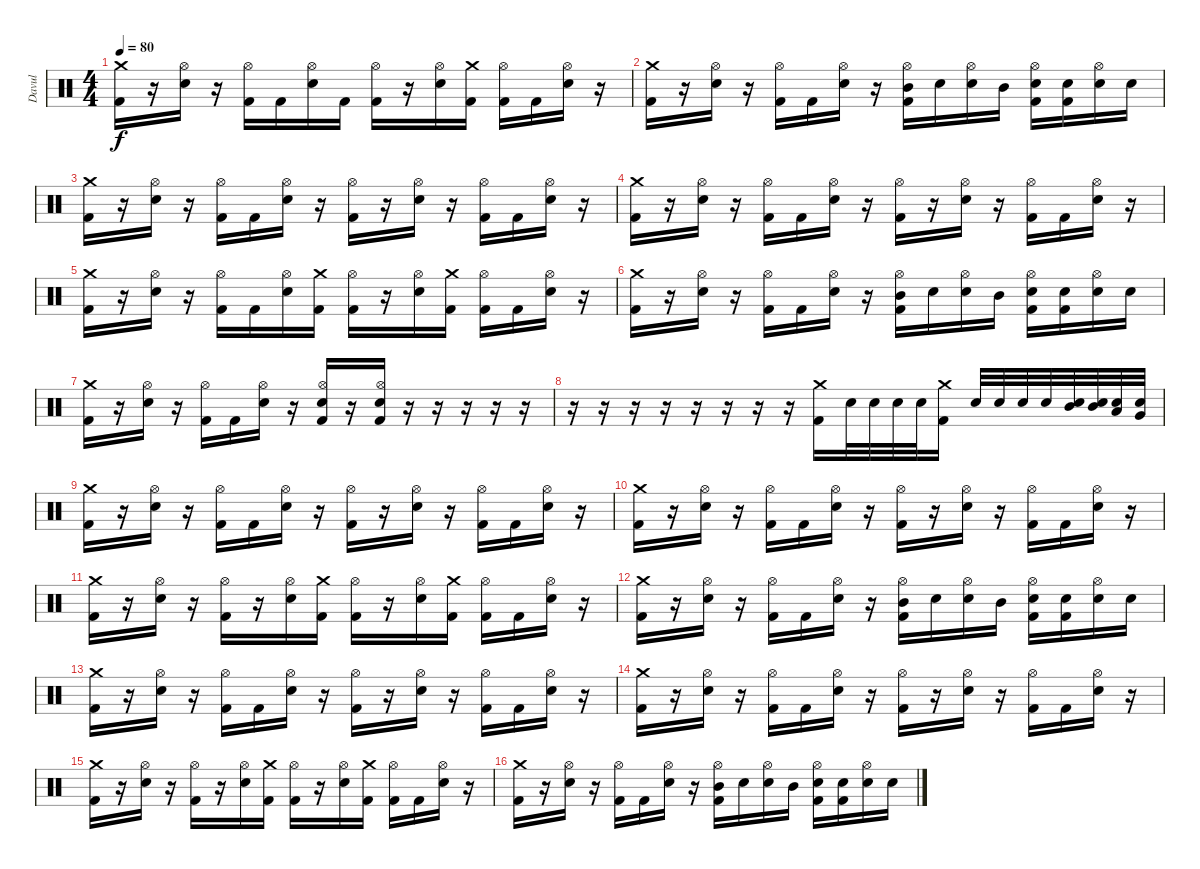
\track ("Davul" "Davul") {instrument percussion}
\staff {score}
\articulation defaults
\ts (4 4)
\tempo 80
\clef neutral
\ks c
("Crash medium (hit)" "Kick (hit) 2").16{dy f} r.16 ("Hi-Hat (open)" "Snare (hit) 2").16 r.16 ("Hi-Hat (open)" "Kick (hit) 2").16 "Kick (hit) 2".16 ("Hi-Hat (open)" "Snare (hit) 2").16 "Kick (hit) 2".16 ("Hi-Hat (open)" "Kick (hit) 2").16 r.16 ("Hi-Hat (open)" "Snare (hit) 2").16 ("Crash medium (hit)" "Kick (hit) 2").16 ("Hi-Hat (open)" "Kick (hit) 2").16 "Kick (hit) 2".16 ("Hi-Hat (open)" "Snare (hit) 2").16 r.16 |
("Crash medium (hit)" "Kick (hit) 2").16 r.16 ("Hi-Hat (open)" "Snare (hit) 2").16 r.16 ("Hi-Hat (open)" "Kick (hit) 2").16 "Kick (hit) 2".16 ("Hi-Hat (open)" "Snare (hit) 2").16 r.16 ("Hi-Hat (open)" "Mid Tom (hit)" "Kick (hit) 2").16 "Snare (hit) 2".16 ("Hi-Hat (open)" "Snare (hit) 2").16 "Mid Tom (hit)".16 ("Hi-Hat (open)" "Snare (hit) 2" "Kick (hit) 2").16 ("Snare (hit) 2" "Kick (hit) 2").16 ("Hi-Hat (open)" "Snare (hit) 2").16 "Snare (hit) 2".16 |
("Crash medium (hit)" "Kick (hit) 2").16 r.16 ("Hi-Hat (open)" "Snare (hit) 2").16 r.16 ("Hi-Hat (open)" "Kick (hit) 2").16 "Kick (hit) 2".16 ("Hi-Hat (open)" "Snare (hit) 2").16 r.16 ("Hi-Hat (open)" "Kick (hit) 2").16 r.16 ("Hi-Hat (open)" "Snare (hit) 2").16 r.16 ("Hi-Hat (open)" "Kick (hit) 2").16 "Kick (hit) 2".16 ("Hi-Hat (open)" "Snare (hit) 2").16 r.16 |
("Crash medium (hit)" "Kick (hit) 2").16 r.16 ("Hi-Hat (open)" "Snare (hit) 2").16 r.16 ("Hi-Hat (open)" "Kick (hit) 2").16 "Kick (hit) 2".16 ("Hi-Hat (open)" "Snare (hit) 2").16 r.16 ("Hi-Hat (open)" "Kick (hit) 2").16 r.16 ("Hi-Hat (open)" "Snare (hit) 2").16 r.16 ("Hi-Hat (open)" "Kick (hit) 2").16 "Kick (hit) 2".16 ("Hi-Hat (open)" "Snare (hit) 2").16 r.16 |
("Crash medium (hit)" "Kick (hit) 2").16 r.16 ("Hi-Hat (open)" "Snare (hit) 2").16 r.16 ("Hi-Hat (open)" "Kick (hit) 2").16 "Kick (hit) 2".16 ("Hi-Hat (open)" "Snare (hit) 2").16 ("Crash medium (hit)" "Kick (hit) 2").16 ("Hi-Hat (open)" "Kick (hit) 2").16 r.16 ("Hi-Hat (open)" "Snare (hit) 2").16 ("Crash medium (hit)" "Kick (hit) 2").16 ("Hi-Hat (open)" "Kick (hit) 2").16 "Kick (hit) 2".16 ("Hi-Hat (open)" "Snare (hit) 2").16 r.16 |
("Crash medium (hit)" "Kick (hit) 2").16 r.16 ("Hi-Hat (open)" "Snare (hit) 2").16 r.16 ("Hi-Hat (open)" "Kick (hit) 2").16 "Kick (hit) 2".16 ("Hi-Hat (open)" "Snare (hit) 2").16 r.16 ("Hi-Hat (open)" "Mid Tom (hit)" "Kick (hit) 2").16 "Snare (hit) 2".16 ("Hi-Hat (open)" "Snare (hit) 2").16 "Mid Tom (hit)".16 ("Hi-Hat (open)" "Snare (hit) 2" "Kick (hit) 2").16 ("Snare (hit) 2" "Kick (hit) 2").16 ("Hi-Hat (open)" "Snare (hit) 2").16 "Snare (hit) 2".16 |
("Crash medium (hit)" "Kick (hit) 2").16 r.16 ("Hi-Hat (open)" "Snare (hit) 2").16 r.16 ("Hi-Hat (open)" "Kick (hit) 2").16 "Kick (hit) 2".16 ("Hi-Hat (open)" "Snare (hit) 2").16 r.16 ("Hi-Hat (open)" "Snare (hit) 2" "Kick (hit) 2").16 r.16 ("Hi-Hat (open)" "Snare (hit) 2" "Kick (hit) 2").16 r.16 r.16 r.16 r.16 r.16 |
r.16 r.16 r.16 r.16 r.16 r.16 r.16 r.16 ("Kick (hit) 2" "Crash medium (hit)").16 "Snare (hit) 2".32 "Snare (hit) 2".32 "Snare (hit) 2".32 "Snare (hit) 2".32 ("Kick (hit) 2" "Crash medium (hit)").16 "Snare (hit) 2".32 "Snare (hit) 2".32 "Snare (hit) 2".32 "Snare (hit) 2".32 ("Mid Tom (hit)" "Snare (hit) 2").32 ("Mid Tom (hit)" "Snare (hit) 2").32 ("Low Tom (hit)" "Snare (hit) 2").32 ("Very Low Tom (hit)" "Snare (hit) 2").32 |
("Crash medium (hit)" "Kick (hit) 2").16 r.16 ("Hi-Hat (open)" "Snare (hit) 2").16 r.16 ("Hi-Hat (open)" "Kick (hit) 2").16 "Kick (hit) 2".16 ("Hi-Hat (open)" "Snare (hit) 2").16 r.16 ("Hi-Hat (open)" "Kick (hit) 2").16 r.16 ("Hi-Hat (open)" "Snare (hit) 2").16 r.16 ("Hi-Hat (open)" "Kick (hit) 2").16 "Kick (hit) 2".16 ("Hi-Hat (open)" "Snare (hit) 2").16 r.16 |
("Crash medium (hit)" "Kick (hit) 2").16 r.16 ("Hi-Hat (open)" "Snare (hit) 2").16 r.16 ("Hi-Hat (open)" "Kick (hit) 2").16 "Kick (hit) 2".16 ("Hi-Hat (open)" "Snare (hit) 2").16 r.16 ("Hi-Hat (open)" "Kick (hit) 2").16 r.16 ("Hi-Hat (open)" "Snare (hit) 2").16 r.16 ("Hi-Hat (open)" "Kick (hit) 2").16 "Kick (hit) 2".16 ("Hi-Hat (open)" "Snare (hit) 2").16 r.16 |
("Crash medium (hit)" "Kick (hit) 2").16 r.16 ("Hi-Hat (open)" "Snare (hit) 2").16 r.16 ("Hi-Hat (open)" "Kick (hit) 2").16 r.16 ("Hi-Hat (open)" "Snare (hit) 2").16 ("Crash medium (hit)" "Kick (hit) 2").16 ("Hi-Hat (open)" "Kick (hit) 2").16 r.16 ("Hi-Hat (open)" "Snare (hit) 2").16 ("Crash medium (hit)" "Kick (hit) 2").16 ("Hi-Hat (open)" "Kick (hit) 2").16 "Kick (hit) 2".16 ("Hi-Hat (open)" "Snare (hit) 2").16 r.16 |
("Crash medium (hit)" "Kick (hit) 2").16 r.16 ("Hi-Hat (open)" "Snare (hit) 2").16 r.16 ("Hi-Hat (open)" "Kick (hit) 2").16 "Kick (hit) 2".16 ("Hi-Hat (open)" "Snare (hit) 2").16 r.16 ("Hi-Hat (open)" "Mid Tom (hit)" "Kick (hit) 2").16 "Snare (hit) 2".16 ("Hi-Hat (open)" "Snare (hit) 2").16 "Mid Tom (hit)".16 ("Hi-Hat (open)" "Snare (hit) 2" "Kick (hit) 2").16 ("Snare (hit) 2" "Kick (hit) 2").16 ("Hi-Hat (open)" "Snare (hit) 2").16 "Snare (hit) 2".16 |
("Crash medium (hit)" "Kick (hit) 2").16 r.16 ("Hi-Hat (open)" "Snare (hit) 2").16 r.16 ("Hi-Hat (open)" "Kick (hit) 2").16 "Kick (hit) 2".16 ("Hi-Hat (open)" "Snare (hit) 2").16 r.16 ("Hi-Hat (open)" "Kick (hit) 2").16 r.16 ("Hi-Hat (open)" "Snare (hit) 2").16 r.16 ("Hi-Hat (open)" "Kick (hit) 2").16 "Kick (hit) 2".16 ("Hi-Hat (open)" "Snare (hit) 2").16 r.16 |
("Crash medium (hit)" "Kick (hit) 2").16 r.16 ("Hi-Hat (open)" "Snare (hit) 2").16 r.16 ("Hi-Hat (open)" "Kick (hit) 2").16 "Kick (hit) 2".16 ("Hi-Hat (open)" "Snare (hit) 2").16 r.16 ("Hi-Hat (open)" "Kick (hit) 2").16 r.16 ("Hi-Hat (open)" "Snare (hit) 2").16 r.16 ("Hi-Hat (open)" "Kick (hit) 2").16 "Kick (hit) 2".16 ("Hi-Hat (open)" "Snare (hit) 2").16 r.16 |
("Crash medium (hit)" "Kick (hit) 2").16 r.16 ("Hi-Hat (open)" "Snare (hit) 2").16 r.16 ("Hi-Hat (open)" "Kick (hit) 2").16 r.16 ("Hi-Hat (open)" "Snare (hit) 2").16 ("Crash medium (hit)" "Kick (hit) 2").16 ("Hi-Hat (open)" "Kick (hit) 2").16 r.16 ("Hi-Hat (open)" "Snare (hit) 2").16 ("Crash medium (hit)" "Kick (hit) 2").16 ("Hi-Hat (open)" "Kick (hit) 2").16 "Kick (hit) 2".16 ("Hi-Hat (open)" "Snare (hit) 2").16 r.16 |
("Crash medium (hit)" "Kick (hit) 2").16 r.16 ("Hi-Hat (open)" "Snare (hit) 2").16 r.16 ("Hi-Hat (open)" "Kick (hit) 2").16 "Kick (hit) 2".16 ("Hi-Hat (open)" "Snare (hit) 2").16 r.16 ("Hi-Hat (open)" "Mid Tom (hit)" "Kick (hit) 2").16 "Snare (hit) 2".16 ("Hi-Hat (open)" "Snare (hit) 2").16 "Mid Tom (hit)".16 ("Hi-Hat (open)" "Snare (hit) 2" "Kick (hit) 2").16 ("Snare (hit) 2" "Kick (hit) 2").16 ("Hi-Hat (open)" "Snare (hit) 2").16 "Snare (hit) 2".16
